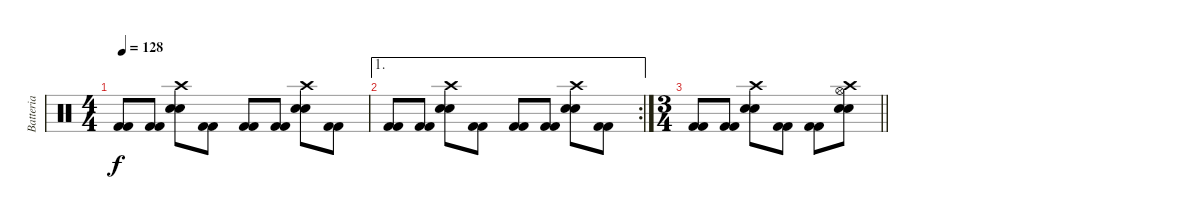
\track ("Batteria" "Batteria") {instrument percussion}
\staff {score}
\articulation defaults
\ts (4 4)
\tempo 128
\clef neutral
\ks c
("Kick (hit) 2" "Kick (hit) 2").8{dy f} ("Kick (hit) 2" "Kick (hit) 2").8 ("Crash high (hit)" "Electric Snare (hit)" "Snare (hit) 2").8 ("Kick (hit) 2" "Kick (hit) 2").8 ("Kick (hit) 2" "Kick (hit) 2").8 ("Kick (hit) 2" "Kick (hit) 2").8 ("Crash high (hit)" "Electric Snare (hit)" "Snare (hit) 2").8 ("Kick (hit) 2" "Kick (hit) 2").8 |
\ae 1
\rc 2
("Kick (hit) 2" "Kick (hit) 2").8 ("Kick (hit) 2" "Kick (hit) 2").8 ("Crash high (hit)" "Electric Snare (hit)" "Snare (hit) 2").8 ("Kick (hit) 2" "Kick (hit) 2").8 ("Kick (hit) 2" "Kick (hit) 2").8 ("Kick (hit) 2" "Kick (hit) 2").8 ("Crash high (hit)" "Electric Snare (hit)" "Snare (hit) 2").8 ("Kick (hit) 2" "Kick (hit) 2").8 |
\ts (3 4)
\barLineRight lightlight
("Kick (hit) 2" "Kick (hit) 2").8 ("Kick (hit) 2" "Kick (hit) 2").8 ("Crash high (hit)" "Electric Snare (hit)" "Snare (hit) 2").8 ("Kick (hit) 2" "Kick (hit) 2").8 ("Kick (hit) 2" "Kick (hit) 2").8 ("Hi-Hat (open)" "Crash high (hit)" "Snare (hit) 2" "Electric Snare (hit)").8
